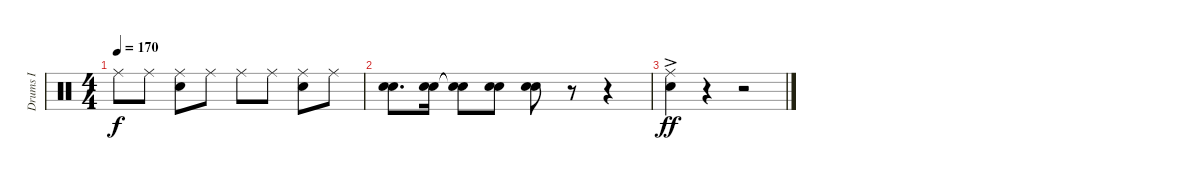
\track ("Drums I" "Drums I") {instrument percussion}
\staff {score}
\articulation defaults
\ts (4 4)
\tempo 170
\clef neutral
\ks c "Ride (middle)".8{dy f} "Ride (middle)".8
("Ride (middle)" "Snare (hit) 2").8 "Ride (middle)".8 "Ride (middle)".8 "Ride (middle)".8 ("Ride (middle)" "Snare (hit) 2").8 "Ride (middle)".8 |
("Snare (hit) 2" "Snare (hit) 2").8{d} ("Snare (hit) 2" "Snare (hit) 2").16 ("Snare (hit) 2"{t} "Snare (hit) 2"{t}).8 ("Snare (hit) 2" "Snare (hit) 2").8 ("Snare (hit) 2" "Snare (hit) 2").8 r.8 r.4 |
("Ride (middle)"{ac} "Snare (hit) 2").4{dy ff} r.4 r.2
